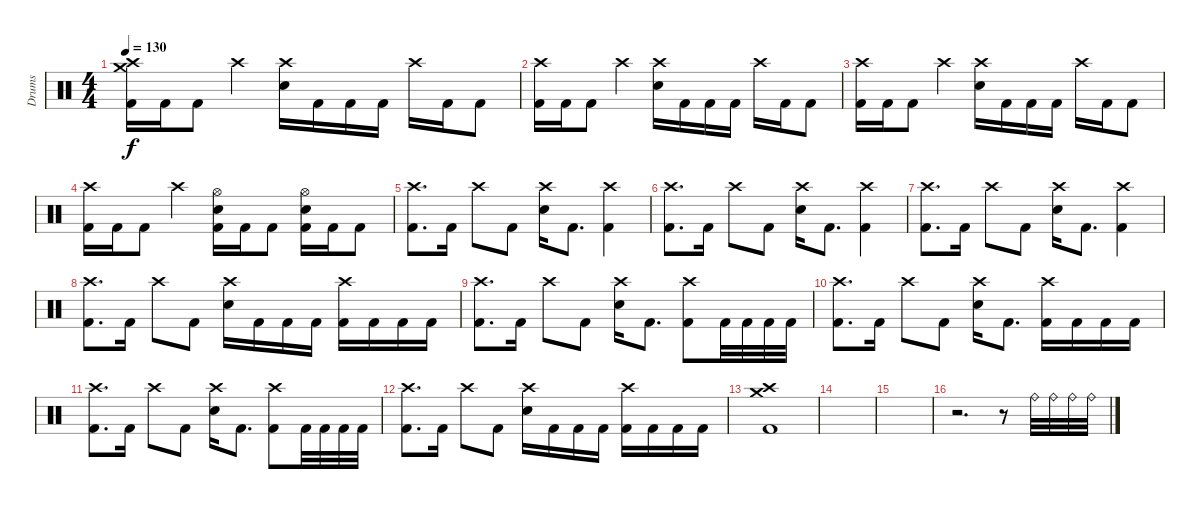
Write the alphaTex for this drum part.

\track ("Drums" "Drums") {instrument percussion}
\staff {score}
\articulation defaults
\ts (4 4)
\tempo 130
\clef neutral
\ks c
("Crash high (hit)" "Crash medium (hit)" "Kick (hit) 2").16{dy f} "Kick (hit) 2".16 "Kick (hit) 2".8 "Crash high (hit)".4 ("Crash high (hit)" "Electric Snare (hit)").16 "Kick (hit) 2".16 "Kick (hit) 2".16 "Kick (hit) 2".16 "Crash high (hit)".16 "Kick (hit) 2".16 "Kick (hit) 2".8 |
("Crash high (hit)" "Kick (hit) 2").16 "Kick (hit) 2".16 "Kick (hit) 2".8 "Crash high (hit)".4 ("Crash high (hit)" "Electric Snare (hit)").16 "Kick (hit) 2".16 "Kick (hit) 2".16 "Kick (hit) 2".16 "Crash high (hit)".16 "Kick (hit) 2".16 "Kick (hit) 2".8 |
("Crash high (hit)" "Kick (hit) 2").16 "Kick (hit) 2".16 "Kick (hit) 2".8 "Crash high (hit)".4 ("Crash high (hit)" "Electric Snare (hit)").16 "Kick (hit) 2".16 "Kick (hit) 2".16 "Kick (hit) 2".16 "Crash high (hit)".16 "Kick (hit) 2".16 "Kick (hit) 2".8 |
("Crash high (hit)" "Kick (hit) 2").16 "Kick (hit) 2".16 "Kick (hit) 2".8 "Crash high (hit)".4 ("Hi-Hat (open)" "Electric Snare (hit)" "Kick (hit) 2").16 "Kick (hit) 2".16 "Kick (hit) 2".8 ("Hi-Hat (open)" "Electric Snare (hit)" "Kick (hit) 2").16 "Kick (hit) 2".16 "Kick (hit) 2".8 |
("Crash high (hit)" "Kick (hit) 2").8{d} "Kick (hit) 2".16 "Crash high (hit)".8 "Kick (hit) 2".8 ("Crash high (hit)" "Electric Snare (hit)").16 "Kick (hit) 2".8{d} ("Crash high (hit)" "Kick (hit) 2").4 |
("Crash high (hit)" "Kick (hit) 2").8{d} "Kick (hit) 2".16 "Crash high (hit)".8 "Kick (hit) 2".8 ("Crash high (hit)" "Electric Snare (hit)").16 "Kick (hit) 2".8{d} ("Crash high (hit)" "Kick (hit) 2").4 |
("Crash high (hit)" "Kick (hit) 2").8{d} "Kick (hit) 2".16 "Crash high (hit)".8 "Kick (hit) 2".8 ("Crash high (hit)" "Electric Snare (hit)").16 "Kick (hit) 2".8{d} ("Crash high (hit)" "Kick (hit) 2").4 |
("Crash high (hit)" "Kick (hit) 2").8{d} "Kick (hit) 2".16 "Crash high (hit)".8 "Kick (hit) 2".8 ("Crash high (hit)" "Electric Snare (hit)").16 "Kick (hit) 2".16 "Kick (hit) 2".16 "Kick (hit) 2".16 ("Crash high (hit)" "Kick (hit) 2").16 "Kick (hit) 2".16 "Kick (hit) 2".16 "Kick (hit) 2".16 |
("Crash high (hit)" "Kick (hit) 2").8{d} "Kick (hit) 2".16 "Crash high (hit)".8 "Kick (hit) 2".8 ("Crash high (hit)" "Electric Snare (hit)").16 "Kick (hit) 2".8{d} ("Crash high (hit)" "Kick (hit) 2").8 "Kick (hit) 2".32 "Kick (hit) 2".32 "Kick (hit) 2".32 "Kick (hit) 2".32 |
("Crash high (hit)" "Kick (hit) 2").8{d} "Kick (hit) 2".16 "Crash high (hit)".8 "Kick (hit) 2".8 ("Crash high (hit)" "Electric Snare (hit)").16 "Kick (hit) 2".8{d} ("Crash high (hit)" "Kick (hit) 2").16 "Kick (hit) 2".16 "Kick (hit) 2".16 "Kick (hit) 2".16 |
("Crash high (hit)" "Kick (hit) 2").8{d} "Kick (hit) 2".16 "Crash high (hit)".8 "Kick (hit) 2".8 ("Crash high (hit)" "Electric Snare (hit)").16 "Kick (hit) 2".8{d} ("Crash high (hit)" "Kick (hit) 2").8 "Kick (hit) 2".32 "Kick (hit) 2".32 "Kick (hit) 2".32 "Kick (hit) 2".32 |
("Crash high (hit)" "Kick (hit) 2").8{d} "Kick (hit) 2".16 "Crash high (hit)".8 "Kick (hit) 2".8 ("Crash high (hit)" "Electric Snare (hit)").16 "Kick (hit) 2".16 "Kick (hit) 2".16 "Kick (hit) 2".16 ("Crash high (hit)" "Kick (hit) 2").16 "Kick (hit) 2".16 "Kick (hit) 2".16 "Kick (hit) 2".16 |
("Crash high (hit)" "Crash medium (hit)" "Kick (hit) 2").1 |
|
|
r.2{d} r.8 "Ride (bell)".32 "Ride (bell)".32 "Ride (bell)".32 "Ride (bell)".32
